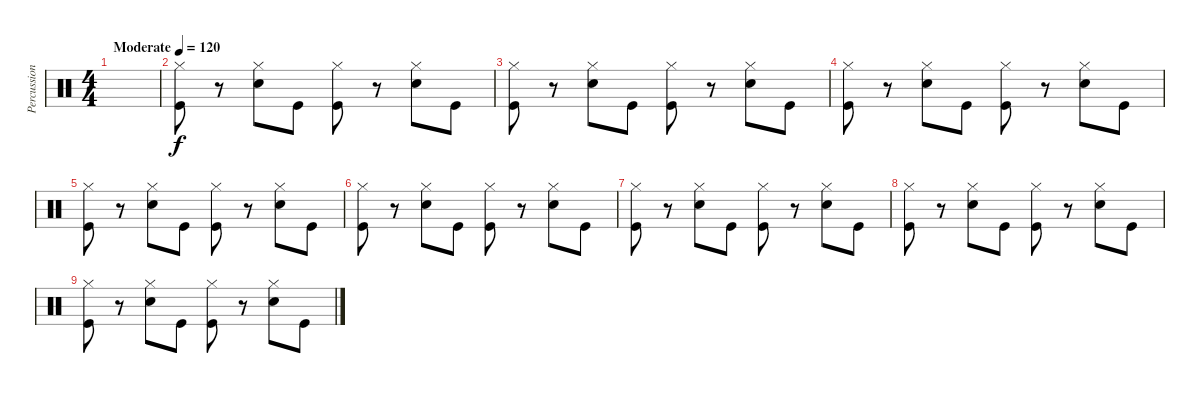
\track ("Percussion" "Percussion") {instrument percussion}
\staff {score}
\articulation defaults
\ts (4 4)
\tempo (120 "Moderate")
\clef neutral
\ks c
|
("Hi-Hat (closed)" "Kick (hit)").8 r.8 ("Hi-Hat (closed)" "Snare (hit) 2").8 "Kick (hit)".8 ("Hi-Hat (closed)" "Kick (hit)").8 r.8 ("Hi-Hat (closed)" "Snare (hit) 2").8 "Kick (hit)".8 |
("Hi-Hat (closed)" "Kick (hit)").8 r.8 ("Hi-Hat (closed)" "Snare (hit) 2").8 "Kick (hit)".8 ("Hi-Hat (closed)" "Kick (hit)").8 r.8 ("Hi-Hat (closed)" "Snare (hit) 2").8 "Kick (hit)".8 |
("Hi-Hat (closed)" "Kick (hit)").8 r.8 ("Hi-Hat (closed)" "Snare (hit) 2").8 "Kick (hit)".8 ("Hi-Hat (closed)" "Kick (hit)").8 r.8 ("Hi-Hat (closed)" "Snare (hit) 2").8 "Kick (hit)".8 |
("Hi-Hat (closed)" "Kick (hit)").8 r.8 ("Hi-Hat (closed)" "Snare (hit) 2").8 "Kick (hit)".8 ("Hi-Hat (closed)" "Kick (hit)").8 r.8 ("Hi-Hat (closed)" "Snare (hit) 2").8 "Kick (hit)".8 |
("Hi-Hat (closed)" "Kick (hit)").8 r.8 ("Hi-Hat (closed)" "Snare (hit) 2").8 "Kick (hit)".8 ("Hi-Hat (closed)" "Kick (hit)").8 r.8 ("Hi-Hat (closed)" "Snare (hit) 2").8 "Kick (hit)".8 |
("Hi-Hat (closed)" "Kick (hit)").8 r.8 ("Hi-Hat (closed)" "Snare (hit) 2").8 "Kick (hit)".8 ("Hi-Hat (closed)" "Kick (hit)").8 r.8 ("Hi-Hat (closed)" "Snare (hit) 2").8 "Kick (hit)".8 |
("Hi-Hat (closed)" "Kick (hit)").8 r.8 ("Hi-Hat (closed)" "Snare (hit) 2").8 "Kick (hit)".8 ("Hi-Hat (closed)" "Kick (hit)").8 r.8 ("Hi-Hat (closed)" "Snare (hit) 2").8 "Kick (hit)".8 |
("Hi-Hat (closed)" "Kick (hit)").8 r.8 ("Hi-Hat (closed)" "Snare (hit) 2").8 "Kick (hit)".8 ("Hi-Hat (closed)" "Kick (hit)").8 r.8 ("Hi-Hat (closed)" "Snare (hit) 2").8 "Kick (hit)".8
